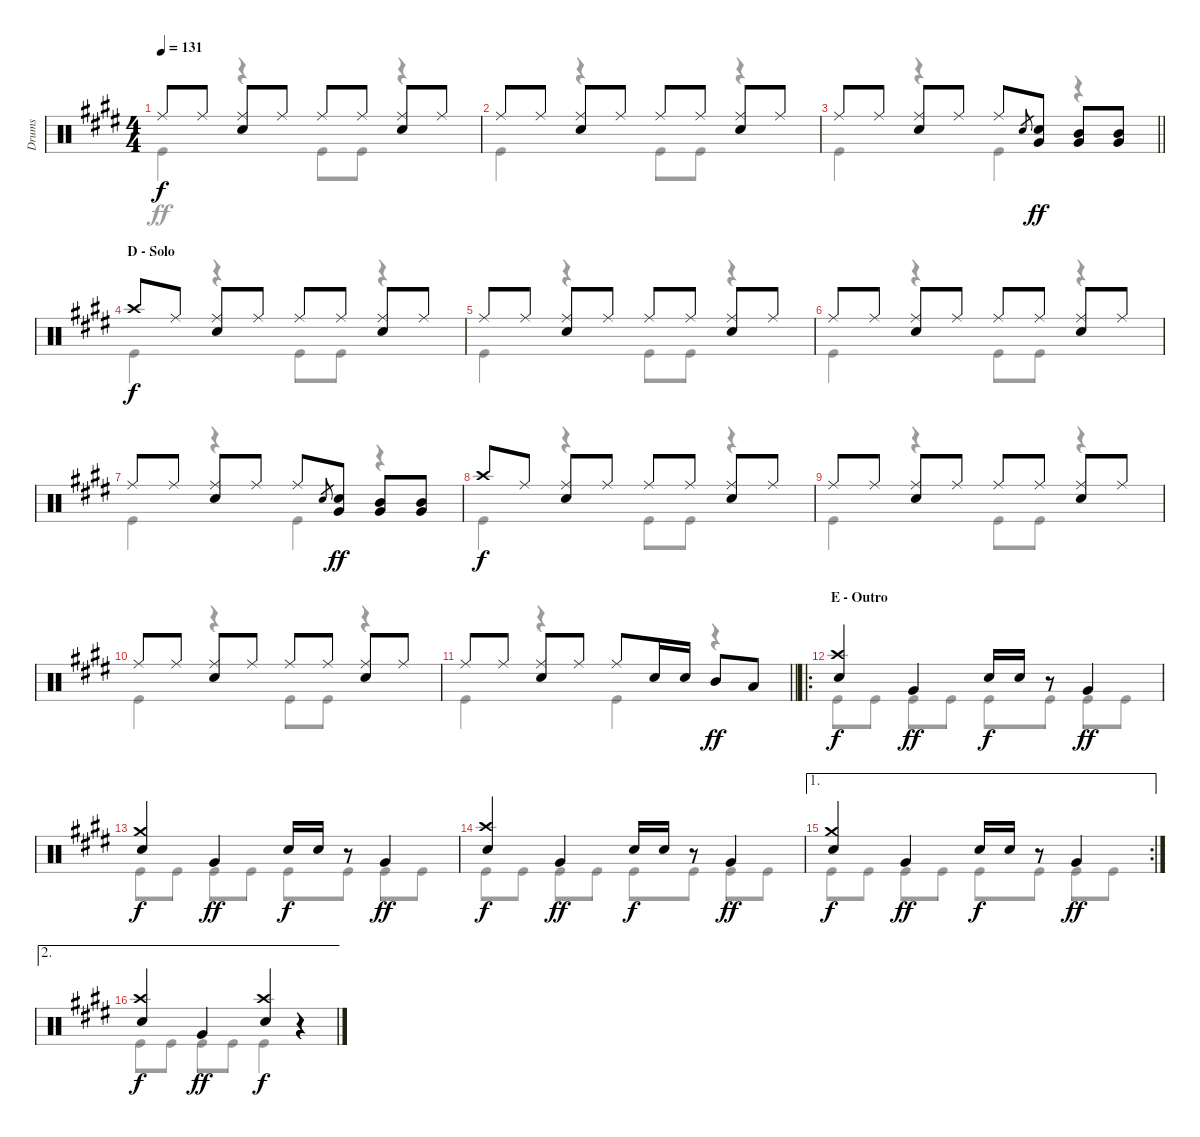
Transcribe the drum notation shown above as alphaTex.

\track ("Drums" "Drums") {instrument percussion}
\staff {score}
\articulation defaults
\voice
\ts (4 4)
\tempo 131
\clef neutral
\ks c#minor "Ride (middle)".8{dy f} "Ride (middle)".8
("Ride (middle)" "Electric Snare (hit)").8 "Ride (middle)".8 "Ride (middle)".8 "Ride (middle)".8 ("Ride (middle)" "Electric Snare (hit)").8 "Ride (middle)".8 |
"Ride (middle)".8 "Ride (middle)".8 ("Ride (middle)" "Electric Snare (hit)").8 "Ride (middle)".8 "Ride (middle)".8 "Ride (middle)".8 ("Ride (middle)" "Electric Snare (hit)").8 "Ride (middle)".8 |
\barLineRight lightlight "Ride (middle)".8 "Ride (middle)".8
("Ride (middle)" "Electric Snare (hit)").8 "Ride (middle)".8 "Ride (middle)".8 "Electric Snare (hit)".8{gr} ("Electric Snare (hit)" "Very Low Tom (hit)").8{dy ff} ("Mid Tom (hit)" "Very Low Tom (hit)").8 ("Mid Tom (hit)" "Very Low Tom (hit)").8 |
\section ("" "D - Solo")
"Crash high (hit)".8{dy f} "Ride (middle)".8 ("Ride (middle)" "Electric Snare (hit)").8 "Ride (middle)".8 "Ride (middle)".8 "Ride (middle)".8 ("Ride (middle)" "Electric Snare (hit)").8 "Ride (middle)".8 |
"Ride (middle)".8 "Ride (middle)".8 ("Ride (middle)" "Electric Snare (hit)").8 "Ride (middle)".8 "Ride (middle)".8 "Ride (middle)".8 ("Ride (middle)" "Electric Snare (hit)").8 "Ride (middle)".8 |
"Ride (middle)".8 "Ride (middle)".8 ("Ride (middle)" "Electric Snare (hit)").8 "Ride (middle)".8 "Ride (middle)".8 "Ride (middle)".8 ("Ride (middle)" "Electric Snare (hit)").8 "Ride (middle)".8 |
"Ride (middle)".8 "Ride (middle)".8 ("Ride (middle)" "Electric Snare (hit)").8 "Ride (middle)".8 "Ride (middle)".8 "Electric Snare (hit)".8{gr} ("Electric Snare (hit)" "Very Low Tom (hit)").8{dy ff} ("Mid Tom (hit)" "Very Low Tom (hit)").8 ("Mid Tom (hit)" "Very Low Tom (hit)").8 |
"Crash high (hit)".8{dy f} "Ride (middle)".8 ("Ride (middle)" "Electric Snare (hit)").8 "Ride (middle)".8 "Ride (middle)".8 "Ride (middle)".8 ("Ride (middle)" "Electric Snare (hit)").8 "Ride (middle)".8 |
"Ride (middle)".8 "Ride (middle)".8 ("Ride (middle)" "Electric Snare (hit)").8 "Ride (middle)".8 "Ride (middle)".8 "Ride (middle)".8 ("Ride (middle)" "Electric Snare (hit)").8 "Ride (middle)".8 |
"Ride (middle)".8 "Ride (middle)".8 ("Ride (middle)" "Electric Snare (hit)").8 "Ride (middle)".8 "Ride (middle)".8 "Ride (middle)".8 ("Ride (middle)" "Electric Snare (hit)").8 "Ride (middle)".8 |
\barLineRight lightlight "Ride (middle)".8 "Ride (middle)".8
("Ride (middle)" "Electric Snare (hit)").8 "Ride (middle)".8 "Ride (middle)".8 "Electric Snare (hit)".16 "Electric Snare (hit)".16 "Mid Tom (hit)".8{dy ff} "Low Tom (hit)".8 |
\ro
\section ("" "E - Outro")
("Crash high (hit)" "Electric Snare (hit)").4{dy f} "Very Low Tom (hit)".4{dy ff} "Electric Snare (hit)".16{dy f} "Electric Snare (hit)".16 r.8 "Very Low Tom (hit)".4{dy ff} |
("Crash medium (hit)" "Electric Snare (hit)").4{dy f} "Very Low Tom (hit)".4{dy ff} "Electric Snare (hit)".16{dy f} "Electric Snare (hit)".16 r.8 "Very Low Tom (hit)".4{dy ff} |
("Crash high (hit)" "Electric Snare (hit)").4{dy f} "Very Low Tom (hit)".4{dy ff} "Electric Snare (hit)".16{dy f} "Electric Snare (hit)".16 r.8 "Very Low Tom (hit)".4{dy ff} |
\ae 1
\rc 2
("Crash medium (hit)" "Electric Snare (hit)").4{dy f} "Very Low Tom (hit)".4{dy ff} "Electric Snare (hit)".16{dy f} "Electric Snare (hit)".16 r.8 "Very Low Tom (hit)".4{dy ff} |
\ae 2
("Crash high (hit)" "Electric Snare (hit)").4{dy f} "Very Low Tom (hit)".4{dy ff} ("Crash high (hit)" "Electric Snare (hit)").4{dy f} r.4
\voice
\clef neutral
\ottava regular
\simile none
\ks c#minor "Kick (hit)".4{dy ff}
r.4 "Kick (hit)".8 "Kick (hit)".8 r.4 |
"Kick (hit)".4 r.4 "Kick (hit)".8 "Kick (hit)".8 r.4 |
\barLineRight lightlight "Kick (hit)".4
r.4 "Kick (hit)".4 r.4 |
"Kick (hit)".4 r.4 "Kick (hit)".8 "Kick (hit)".8 r.4 |
"Kick (hit)".4 r.4 "Kick (hit)".8 "Kick (hit)".8 r.4 |
"Kick (hit)".4 r.4 "Kick (hit)".8 "Kick (hit)".8 r.4 |
"Kick (hit)".4 r.4 "Kick (hit)".4 r.4 |
"Kick (hit)".4 r.4 "Kick (hit)".8 "Kick (hit)".8 r.4 |
"Kick (hit)".4 r.4 "Kick (hit)".8 "Kick (hit)".8 r.4 |
"Kick (hit)".4 r.4 "Kick (hit)".8 "Kick (hit)".8 r.4 |
\barLineRight lightlight "Kick (hit)".4
r.4 "Kick (hit)".4 r.4 |
"Kick (hit)".8 "Kick (hit)".8 "Kick (hit)".8 "Kick (hit)".8 "Kick (hit)".8 "Kick (hit)".8 "Kick (hit)".8 "Kick (hit)".8 |
"Kick (hit)".8 "Kick (hit)".8 "Kick (hit)".8 "Kick (hit)".8 "Kick (hit)".8 "Kick (hit)".8 "Kick (hit)".8 "Kick (hit)".8 |
"Kick (hit)".8 "Kick (hit)".8 "Kick (hit)".8 "Kick (hit)".8 "Kick (hit)".8 "Kick (hit)".8 "Kick (hit)".8 "Kick (hit)".8 |
"Kick (hit)".8 "Kick (hit)".8 "Kick (hit)".8 "Kick (hit)".8 "Kick (hit)".8 "Kick (hit)".8 "Kick (hit)".8 "Kick (hit)".8 |
"Kick (hit)".8 "Kick (hit)".8 "Kick (hit)".8 "Kick (hit)".8 "Kick (hit)".4 r.4
